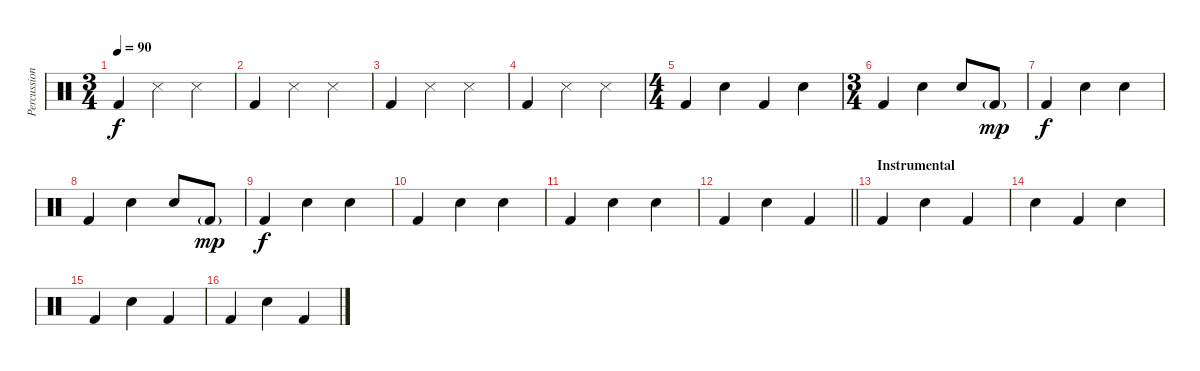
\track ("Percussion" "Percussion") {instrument percussion}
\staff {score}
\articulation defaults
\ts (3 4)
\tempo 90
\clef neutral
\ks c "Kick (hit) 2".4{dy f} "Snare (side stick) 3".4 "Snare (side stick) 3".4
|
"Kick (hit) 2".4 "Snare (side stick) 3".4 "Snare (side stick) 3".4 |
"Kick (hit) 2".4 "Snare (side stick) 3".4 "Snare (side stick) 3".4 |
"Kick (hit) 2".4 "Snare (side stick) 3".4 "Snare (side stick) 3".4 |
\ts (4 4)
"Kick (hit) 2".4 "Snare (hit) 2".4 "Kick (hit) 2".4 "Snare (hit) 2".4 |
\ts (3 4)
"Kick (hit) 2".4 "Snare (hit) 2".4 "Snare (hit) 2".8 "Kick (hit) 2"{g}.8{dy mp} |
"Kick (hit) 2".4{dy f} "Snare (hit) 2".4 "Snare (hit) 2".4 |
"Kick (hit) 2".4 "Snare (hit) 2".4 "Snare (hit) 2".8 "Kick (hit) 2"{g}.8{dy mp} |
"Kick (hit) 2".4{dy f} "Snare (hit) 2".4 "Snare (hit) 2".4 |
"Kick (hit) 2".4 "Snare (hit) 2".4 "Snare (hit) 2".4 |
"Kick (hit) 2".4 "Snare (hit) 2".4 "Snare (hit) 2".4 |
\barLineRight lightlight "Kick (hit) 2".4 "Snare (hit) 2".4 "Kick (hit) 2".4
|
\section ("" "Instrumental")
"Kick (hit) 2".4 "Snare (hit) 2".4 "Kick (hit) 2".4 |
"Snare (hit) 2".4 "Kick (hit) 2".4 "Snare (hit) 2".4 |
"Kick (hit) 2".4 "Snare (hit) 2".4 "Kick (hit) 2".4 |
"Kick (hit) 2".4 "Snare (hit) 2".4 "Kick (hit) 2".4
